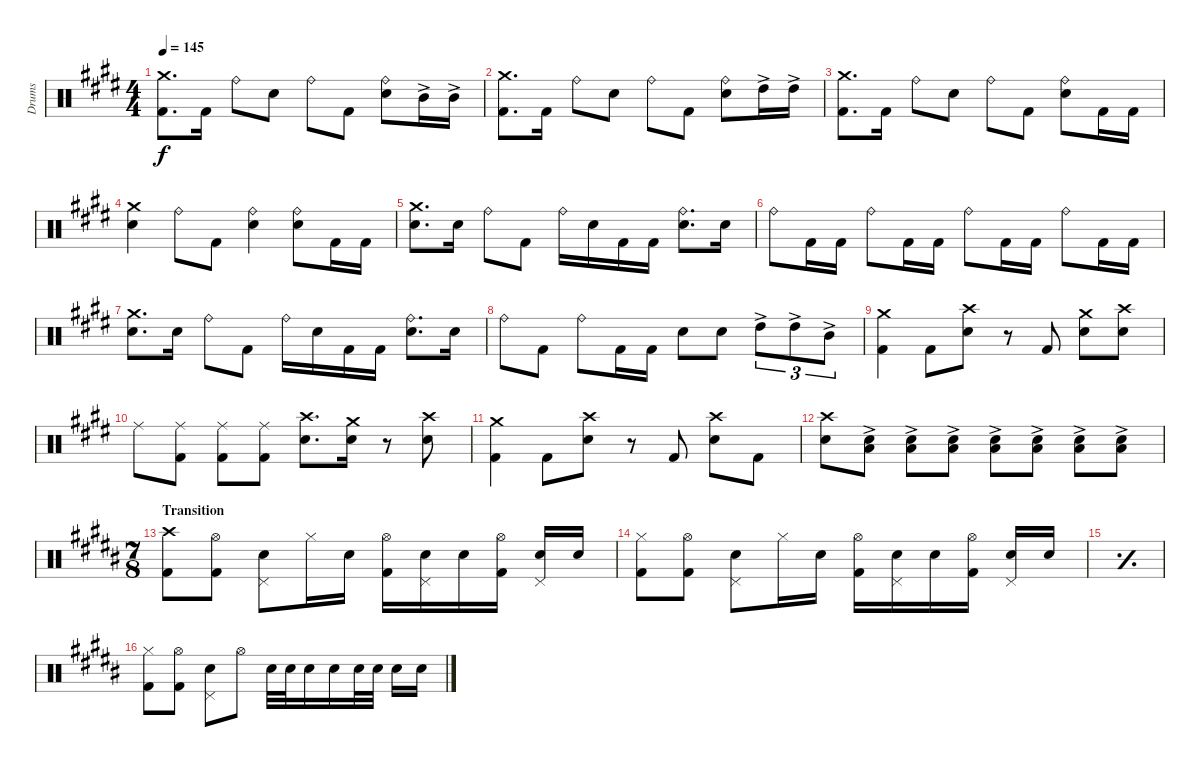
\defaultSystemsLayout 4
\bracketExtendMode groupsimilarinstruments
\otherSystemsTrackNameOrientation horizontal
\track ("Drumkit" "Drums") {multiBarRest instrument percussion}
\staff {score}
\articulation defaults
\ts (4 4)
\tempo 145
\clef neutral
\ks e
("Crash medium (hit)"{acc forcenatural} "Kick (hit) 2"{acc forcenatural}).8{d dy f} "Kick (hit) 2"{acc forcenatural}.16 "Ride (bell)"{acc forcenatural}.8 "Snare (hit) 2"{acc forcenatural}.8 "Ride (bell)"{acc forcenatural}.8 "Kick (hit) 2"{acc forcenatural}.8 ("Snare (hit) 2"{acc forcenatural} "Ride (bell)"{acc forcenatural}).8 "Mid Tom (hit)"{ac acc forcenatural}.16 "Mid Tom (hit)"{ac acc forcenatural}.16 |
("Crash medium (hit)"{acc forcenatural} "Kick (hit) 2"{acc forcenatural}).8{d} "Kick (hit) 2"{acc forcenatural}.16 "Ride (bell)"{acc forcenatural}.8 "Snare (hit) 2"{acc forcenatural}.8 "Ride (bell)"{acc forcenatural}.8 "Kick (hit) 2"{acc forcenatural}.8 ("Snare (hit) 2"{acc forcenatural} "Ride (bell)"{acc forcenatural}).8 "High Tom (hit)"{ac acc forcenatural}.16 "High Tom (hit)"{ac acc forcenatural}.16 |
("Crash medium (hit)"{acc forcenatural} "Kick (hit) 2"{acc forcenatural}).8{d} "Kick (hit) 2"{acc forcenatural}.16 "Ride (bell)"{acc forcenatural}.8 "Snare (hit) 2"{acc forcenatural}.8 "Ride (bell)"{acc forcenatural}.8 "Kick (hit) 2"{acc forcenatural}.8 ("Snare (hit) 2"{acc forcenatural} "Ride (bell)"{acc forcenatural}).8 "Kick (hit) 2"{acc forcenatural}.16 "Kick (hit) 2"{acc forcenatural}.16 |
("Crash medium (hit)"{acc forcenatural} "Snare (hit) 2"{acc forcenatural}).4 "Ride (bell)"{acc forcenatural}.8 "Kick (hit) 2"{acc forcenatural}.8 ("Ride (bell)"{acc forcenatural} "Snare (hit) 2"{acc forcenatural}).4 ("Snare (hit) 2"{acc forcenatural} "Ride (bell)"{acc forcenatural}).8 "Kick (hit) 2"{acc forcenatural}.16 "Kick (hit) 2"{acc forcenatural}.16 |
("Snare (hit) 2"{acc forcenatural} "Crash medium (hit)"{acc forcenatural}).8{d} "Snare (hit) 2"{acc forcenatural}.16 "Ride (bell)"{acc forcenatural}.8 "Kick (hit) 2"{acc forcenatural}.8 "Ride (bell)"{acc forcenatural}.16 "Snare (hit) 2"{acc forcenatural}.16 "Kick (hit) 2"{acc forcenatural}.16 "Kick (hit) 2"{acc forcenatural}.16 ("Snare (hit) 2"{acc forcenatural} "Ride (bell)"{acc forcenatural}).8{d} "Snare (hit) 2"{acc forcenatural}.16 |
"Ride (bell)"{acc forcenatural}.8 "Kick (hit) 2"{acc forcenatural}.16 "Kick (hit) 2"{acc forcenatural}.16 "Ride (bell)"{acc forcenatural}.8 "Kick (hit) 2"{acc forcenatural}.16 "Kick (hit) 2"{acc forcenatural}.16 "Ride (bell)"{acc forcenatural}.8 "Kick (hit) 2"{acc forcenatural}.16 "Kick (hit) 2"{acc forcenatural}.16 "Ride (bell)"{acc forcenatural}.8 "Kick (hit) 2"{acc forcenatural}.16 "Kick (hit) 2"{acc forcenatural}.16 |
("Snare (hit) 2"{acc forcenatural} "Crash medium (hit)"{acc forcenatural}).8{d} "Snare (hit) 2"{acc forcenatural}.16 "Ride (bell)"{acc forcenatural}.8 "Kick (hit) 2"{acc forcenatural}.8 "Ride (bell)"{acc forcenatural}.16 "Snare (hit) 2"{acc forcenatural}.16 "Kick (hit) 2"{acc forcenatural}.16 "Kick (hit) 2"{acc forcenatural}.16 ("Snare (hit) 2"{acc forcenatural} "Ride (bell)"{acc forcenatural}).8{d} "Snare (hit) 2"{acc forcenatural}.16 |
"Ride (bell)"{acc forcenatural}.8 "Kick (hit) 2"{acc forcenatural}.8 "Ride (bell)"{acc forcenatural}.8 "Kick (hit) 2"{acc forcenatural}.16 "Kick (hit) 2"{acc forcenatural}.16 "Snare (hit) 2"{acc forcenatural}.8 "Snare (hit) 2"{acc forcenatural}.8 "High Tom (hit)"{ac acc forcenatural}.8{tu (3 2)} "High Tom (hit)"{ac acc forcenatural}.8{tu (3 2)} "Mid Tom (hit)"{ac acc forcenatural}.8{tu (3 2)} |
("Crash medium (hit)"{acc forcenatural} "Kick (hit) 2"{acc forcenatural}).4 "Kick (hit) 2"{acc forcenatural}.8 ("Snare (hit) 2"{acc forcenatural} "Crash high (hit)"{acc forcenatural}).8 r.8 "Kick (hit) 2"{acc forcenatural}.8 ("Snare (hit) 2"{acc forcenatural} "Crash medium (hit)"{acc forcenatural}).8 ("Snare (hit) 2"{acc forcenatural} "Crash high (hit)"{acc forcenatural}).8 |
"Ride (middle)"{acc forcenatural}.8 ("Ride (middle)"{acc forcenatural} "Kick (hit) 2"{acc forcenatural}).8 ("Ride (middle)"{acc forcenatural} "Kick (hit) 2"{acc forcenatural}).8 ("Ride (middle)"{acc forcenatural} "Kick (hit) 2"{acc forcenatural}).8 ("Snare (hit) 2"{acc forcenatural} "Crash high (hit)"{acc forcenatural}).8{d} ("Snare (hit) 2"{acc forcenatural} "Crash medium (hit)"{acc forcenatural}).16 r.8 ("Snare (hit) 2"{acc forcenatural} "Crash high (hit)"{acc forcenatural}).8 |
("Crash medium (hit)"{acc forcenatural} "Kick (hit) 2"{acc forcenatural}).4 "Kick (hit) 2"{acc forcenatural}.8 ("Snare (hit) 2"{acc forcenatural} "Crash high (hit)"{acc forcenatural}).8 r.8 "Kick (hit) 2"{acc forcenatural}.8 ("Snare (hit) 2"{acc forcenatural} "Crash high (hit)"{acc forcenatural}).8 "Kick (hit) 2"{acc forcenatural}.8 |
("Crash high (hit)"{acc forcenatural} "Snare (hit) 2"{acc forcenatural}).8 ("Snare (hit) 2"{acc forcenatural} "Low Tom (hit)"{ac acc forcenatural}).8 ("Snare (hit) 2"{acc forcenatural} "Low Tom (hit)"{ac acc forcenatural}).8 ("Snare (hit) 2"{acc forcenatural} "Low Tom (hit)"{ac acc forcenatural}).8 ("Snare (hit) 2"{acc forcenatural} "Low Tom (hit)"{ac acc forcenatural}).8 ("Snare (hit) 2"{acc forcenatural} "Low Tom (hit)"{ac acc forcenatural}).8 ("Snare (hit) 2"{acc forcenatural} "Low Tom (hit)"{ac acc forcenatural}).8 ("Snare (hit) 2"{acc forcenatural} "Low Tom (hit)"{ac acc forcenatural}).8 |
\ts (7 8)
\beaming (8 2 2 2 2)
\section ("" "Transition")
\ks b
("Kick (hit) 2"{acc forcenatural} "Crash high (hit)"{acc forcenatural}).8 ("Kick (hit) 2"{acc forcenatural} "Hi-Hat (open)"{acc forcenatural}).8 ("Pedal Hi-Hat (hit)"{acc forcenatural} "Snare (hit) 2"{acc forcenatural}).8 "Hi-Hat (closed)"{acc forcenatural}.16 "Snare (hit) 2"{acc forcenatural}.16 ("Hi-Hat (open)"{acc forcenatural} "Kick (hit) 2"{acc forcenatural}).16 ("Pedal Hi-Hat (hit)"{acc forcenatural} "Snare (hit) 2"{acc forcenatural}).16 "Snare (hit) 2"{acc forcenatural}.16 ("Hi-Hat (open)"{acc forcenatural} "Kick (hit) 2"{acc forcenatural}).16 ("Pedal Hi-Hat (hit)"{acc forcenatural} "Snare (hit) 2"{acc forcenatural}).16 "Snare (hit) 2"{acc forcenatural}.16 |
("Kick (hit) 2"{acc forcenatural} "Hi-Hat (closed)"{acc forcenatural}).8 ("Kick (hit) 2"{acc forcenatural} "Hi-Hat (open)"{acc forcenatural}).8 ("Pedal Hi-Hat (hit)"{acc forcenatural} "Snare (hit) 2"{acc forcenatural}).8 "Hi-Hat (closed)"{acc forcenatural}.16 "Snare (hit) 2"{acc forcenatural}.16 ("Hi-Hat (open)"{acc forcenatural} "Kick (hit) 2"{acc forcenatural}).16 ("Pedal Hi-Hat (hit)"{acc forcenatural} "Snare (hit) 2"{acc forcenatural}).16 "Snare (hit) 2"{acc forcenatural}.16 ("Hi-Hat (open)"{acc forcenatural} "Kick (hit) 2"{acc forcenatural}).16 ("Pedal Hi-Hat (hit)"{acc forcenatural} "Snare (hit) 2"{acc forcenatural}).16 "Snare (hit) 2"{acc forcenatural}.16 |
\simile simple
|
\simile none
("Kick (hit) 2"{acc forcenatural} "Hi-Hat (closed)"{acc forcenatural}).8 ("Kick (hit) 2"{acc forcenatural} "Hi-Hat (open)"{acc forcenatural}).8 ("Pedal Hi-Hat (hit)"{acc forcenatural} "Snare (hit) 2"{acc forcenatural}).8 "Hi-Hat (open)"{acc forcenatural}.8 "Snare (hit) 2"{acc forcenatural}.32 "Snare (hit) 2"{acc forcenatural}.32 "Snare (hit) 2"{acc forcenatural}.16 "Snare (hit) 2"{acc forcenatural}.16 "Snare (hit) 2"{acc forcenatural}.32 "Snare (hit) 2"{acc forcenatural}.32 "Snare (hit) 2"{acc forcenatural}.16 "Snare (hit) 2"{acc forcenatural}.16
